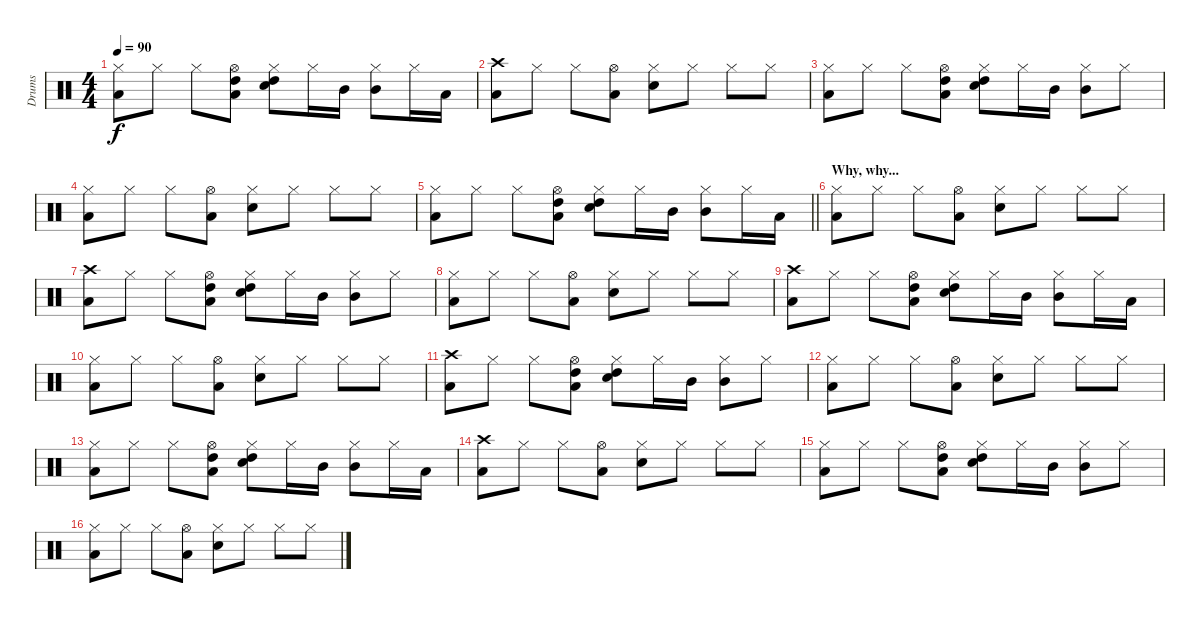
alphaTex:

\track ("Drums" "Drums") {instrument percussion}
\staff {score}
\articulation defaults
\ts (4 4)
\tempo 90
\clef neutral
\ks c
("Hi-Hat (closed)" "Low Tom (hit)").8{dy f} "Hi-Hat (closed)".8 "Hi-Hat (closed)".8 ("Hi-Hat (open)" "High Tom (hit)" "Low Tom (hit)").8 ("Hi-Hat (closed)" "High Tom (hit)" "Snare (hit) 2").8 "Hi-Hat (closed)".16 "Mid Tom (hit)".16 ("Hi-Hat (closed)" "Mid Tom (hit)").8 "Hi-Hat (closed)".16 "Low Tom (hit)".16 |
("Crash high (hit)" "Low Tom (hit)").8 "Hi-Hat (closed)".8 "Hi-Hat (closed)".8 ("Hi-Hat (open)" "Low Tom (hit)").8 ("Hi-Hat (closed)" "Snare (hit) 2").8 "Hi-Hat (closed)".8 "Hi-Hat (closed)".8 "Hi-Hat (closed)".8 |
("Hi-Hat (closed)" "Low Tom (hit)").8 "Hi-Hat (closed)".8 "Hi-Hat (closed)".8 ("Hi-Hat (open)" "High Tom (hit)" "Low Tom (hit)").8 ("Hi-Hat (closed)" "High Tom (hit)" "Snare (hit) 2").8 "Hi-Hat (closed)".16 "Mid Tom (hit)".16 ("Hi-Hat (closed)" "Mid Tom (hit)").8 "Hi-Hat (closed)".8 |
("Hi-Hat (closed)" "Low Tom (hit)").8 "Hi-Hat (closed)".8 "Hi-Hat (closed)".8 ("Hi-Hat (open)" "Low Tom (hit)").8 ("Hi-Hat (closed)" "Snare (hit) 2").8 "Hi-Hat (closed)".8 "Hi-Hat (closed)".8 "Hi-Hat (closed)".8 |
\barLineRight lightlight
("Hi-Hat (closed)" "Low Tom (hit)").8 "Hi-Hat (closed)".8 "Hi-Hat (closed)".8 ("Hi-Hat (open)" "High Tom (hit)" "Low Tom (hit)").8 ("Hi-Hat (closed)" "High Tom (hit)" "Snare (hit) 2").8 "Hi-Hat (closed)".16 "Mid Tom (hit)".16 ("Hi-Hat (closed)" "Mid Tom (hit)").8 "Hi-Hat (closed)".16 "Low Tom (hit)".16 |
\section ("" "Why, why...")
("Hi-Hat (closed)" "Low Tom (hit)").8 "Hi-Hat (closed)".8 "Hi-Hat (closed)".8 ("Hi-Hat (open)" "Low Tom (hit)").8 ("Hi-Hat (closed)" "Snare (hit) 2").8 "Hi-Hat (closed)".8 "Hi-Hat (closed)".8 "Hi-Hat (closed)".8 |
("Crash high (hit)" "Low Tom (hit)").8 "Hi-Hat (closed)".8 "Hi-Hat (closed)".8 ("Hi-Hat (open)" "High Tom (hit)" "Low Tom (hit)").8 ("Hi-Hat (closed)" "High Tom (hit)" "Snare (hit) 2").8 "Hi-Hat (closed)".16 "Mid Tom (hit)".16 ("Hi-Hat (closed)" "Mid Tom (hit)").8 "Hi-Hat (closed)".8 |
("Hi-Hat (closed)" "Low Tom (hit)").8 "Hi-Hat (closed)".8 "Hi-Hat (closed)".8 ("Hi-Hat (open)" "Low Tom (hit)").8 ("Hi-Hat (closed)" "Snare (hit) 2").8 "Hi-Hat (closed)".8 "Hi-Hat (closed)".8 "Hi-Hat (closed)".8 |
("Crash high (hit)" "Low Tom (hit)").8 "Hi-Hat (closed)".8 "Hi-Hat (closed)".8 ("Hi-Hat (open)" "High Tom (hit)" "Low Tom (hit)").8 ("Hi-Hat (closed)" "High Tom (hit)" "Snare (hit) 2").8 "Hi-Hat (closed)".16 "Mid Tom (hit)".16 ("Hi-Hat (closed)" "Mid Tom (hit)").8 "Hi-Hat (closed)".16 "Low Tom (hit)".16 |
("Hi-Hat (closed)" "Low Tom (hit)").8 "Hi-Hat (closed)".8 "Hi-Hat (closed)".8 ("Hi-Hat (open)" "Low Tom (hit)").8 ("Hi-Hat (closed)" "Snare (hit) 2").8 "Hi-Hat (closed)".8 "Hi-Hat (closed)".8 "Hi-Hat (closed)".8 |
("Crash high (hit)" "Low Tom (hit)").8 "Hi-Hat (closed)".8 "Hi-Hat (closed)".8 ("Hi-Hat (open)" "High Tom (hit)" "Low Tom (hit)").8 ("Hi-Hat (closed)" "High Tom (hit)" "Snare (hit) 2").8 "Hi-Hat (closed)".16 "Mid Tom (hit)".16 ("Hi-Hat (closed)" "Mid Tom (hit)").8 "Hi-Hat (closed)".8 |
("Hi-Hat (closed)" "Low Tom (hit)").8 "Hi-Hat (closed)".8 "Hi-Hat (closed)".8 ("Hi-Hat (open)" "Low Tom (hit)").8 ("Hi-Hat (closed)" "Snare (hit) 2").8 "Hi-Hat (closed)".8 "Hi-Hat (closed)".8 "Hi-Hat (closed)".8 |
("Hi-Hat (closed)" "Low Tom (hit)").8 "Hi-Hat (closed)".8 "Hi-Hat (closed)".8 ("Hi-Hat (open)" "High Tom (hit)" "Low Tom (hit)").8 ("Hi-Hat (closed)" "High Tom (hit)" "Snare (hit) 2").8 "Hi-Hat (closed)".16 "Mid Tom (hit)".16 ("Hi-Hat (closed)" "Mid Tom (hit)").8 "Hi-Hat (closed)".16 "Low Tom (hit)".16 |
("Crash high (hit)" "Low Tom (hit)").8 "Hi-Hat (closed)".8 "Hi-Hat (closed)".8 ("Hi-Hat (open)" "Low Tom (hit)").8 ("Hi-Hat (closed)" "Snare (hit) 2").8 "Hi-Hat (closed)".8 "Hi-Hat (closed)".8 "Hi-Hat (closed)".8 |
("Hi-Hat (closed)" "Low Tom (hit)").8 "Hi-Hat (closed)".8 "Hi-Hat (closed)".8 ("Hi-Hat (open)" "High Tom (hit)" "Low Tom (hit)").8 ("Hi-Hat (closed)" "High Tom (hit)" "Snare (hit) 2").8 "Hi-Hat (closed)".16 "Mid Tom (hit)".16 ("Hi-Hat (closed)" "Mid Tom (hit)").8 "Hi-Hat (closed)".8 |
("Hi-Hat (closed)" "Low Tom (hit)").8 "Hi-Hat (closed)".8 "Hi-Hat (closed)".8 ("Hi-Hat (open)" "Low Tom (hit)").8 ("Hi-Hat (closed)" "Snare (hit) 2").8 "Hi-Hat (closed)".8 "Hi-Hat (closed)".8 "Hi-Hat (closed)".8
